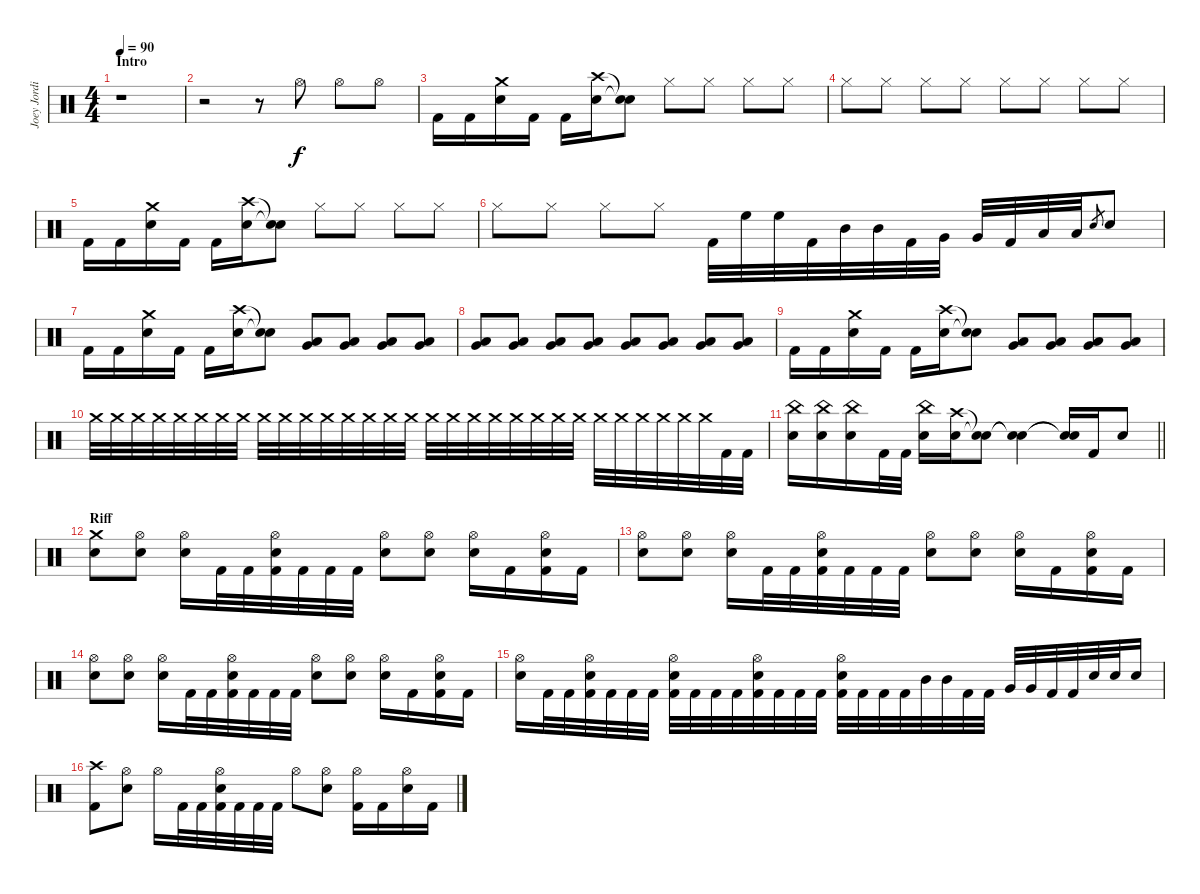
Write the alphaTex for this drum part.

\track ("Joey Jordison" "Joey Jordi") {instrument percussion}
\staff {score}
\articulation defaults
\ts (4 4)
\section ("" "Intro ")
\tempo 90
\clef neutral
\ks c
r.1{dy f} |
r.2 r.8 "Hi-Hat (open)".8 "Hi-Hat (open)".8 "Hi-Hat (open)".8 |
"Kick (hit) 2".16 "Kick (hit) 2".16 ("Crash medium (hit)" "Electric Snare (hit)").16 "Kick (hit) 2".16 "Kick (hit) 2".16 ("Crash high (hit)" "Electric Snare (hit)").16 ("Snare (hit)"{t} "Snare (hit)"{t}).8 "Hi-Hat (closed)".8 "Hi-Hat (closed)".8 "Hi-Hat (closed)".8 "Hi-Hat (closed)".8 |
"Hi-Hat (closed)".8 "Hi-Hat (closed)".8 "Hi-Hat (closed)".8 "Hi-Hat (closed)".8 "Hi-Hat (closed)".8 "Hi-Hat (closed)".8 "Hi-Hat (closed)".8 "Hi-Hat (closed)".8 |
"Kick (hit) 2".16 "Kick (hit) 2".16 ("Crash medium (hit)" "Electric Snare (hit)").16 "Kick (hit) 2".16 "Kick (hit) 2".16 ("Crash high (hit)" "Electric Snare (hit)").16 ("Snare (hit)"{t} "Snare (hit)"{t}).8 "Hi-Hat (closed)".8 "Hi-Hat (closed)".8 "Hi-Hat (closed)".8 "Hi-Hat (closed)".8 |
"Hi-Hat (closed)".8 "Hi-Hat (closed)".8 "Hi-Hat (closed)".8 "Hi-Hat (closed)".8 "Kick (hit) 2".32 "High Floor Tom (hit)".32 "High Floor Tom (hit)".32 "Kick (hit) 2".32 "Mid Tom (hit)".32 "Mid Tom (hit)".32 "Kick (hit) 2".32 "Very Low Tom (hit)".32 "Very Low Tom (hit)".32 "Kick (hit) 2".32 "Low Floor Tom (hit)".32 "Low Floor Tom (hit)".32 "Electric Snare (hit)".8{gr} "Electric Snare (hit)".8 |
"Kick (hit) 2".16 "Kick (hit) 2".16 ("Crash medium (hit)" "Electric Snare (hit)").16 "Kick (hit) 2".16 "Kick (hit) 2".16 ("Crash high (hit)" "Electric Snare (hit)").16 ("Snare (hit)"{t} "Snare (hit)"{t}).8 ("Very Low Tom (hit)" "Low Floor Tom (hit)").8 ("Very Low Tom (hit)" "Low Floor Tom (hit)").8 ("Very Low Tom (hit)" "Low Floor Tom (hit)").8 ("Very Low Tom (hit)" "Low Floor Tom (hit)").8 |
("Very Low Tom (hit)" "Low Floor Tom (hit)").8 ("Very Low Tom (hit)" "Low Floor Tom (hit)").8 ("Very Low Tom (hit)" "Low Floor Tom (hit)").8 ("Very Low Tom (hit)" "Low Floor Tom (hit)").8 ("Very Low Tom (hit)" "Low Floor Tom (hit)").8 ("Very Low Tom (hit)" "Low Floor Tom (hit)").8 ("Very Low Tom (hit)" "Low Floor Tom (hit)").8 ("Very Low Tom (hit)" "Low Floor Tom (hit)").8 |
"Kick (hit) 2".16 "Kick (hit) 2".16 ("Crash medium (hit)" "Electric Snare (hit)").16 "Kick (hit) 2".16 "Kick (hit) 2".16 ("Crash high (hit)" "Electric Snare (hit)").16 ("Snare (hit)"{t} "Snare (hit)"{t}).8 ("Very Low Tom (hit)" "Low Floor Tom (hit)").8 ("Very Low Tom (hit)" "Low Floor Tom (hit)").8 ("Very Low Tom (hit)" "Low Floor Tom (hit)").8 ("Very Low Tom (hit)" "Low Floor Tom (hit)").8 |
"Crash medium (hit)".32{volume 5} "Crash medium (hit)".32{volume 13} "Crash medium (hit)".32 "Crash medium (hit)".32 "Crash medium (hit)".32 "Crash medium (hit)".32 "Crash medium (hit)".32 "Crash medium (hit)".32 "Crash medium (hit)".32 "Crash medium (hit)".32 "Crash medium (hit)".32 "Crash medium (hit)".32 "Crash medium (hit)".32 "Crash medium (hit)".32 "Crash medium (hit)".32 "Crash medium (hit)".32 "Crash medium (hit)".32 "Crash medium (hit)".32 "Crash medium (hit)".32 "Crash medium (hit)".32 "Crash medium (hit)".32 "Crash medium (hit)".32 "Crash medium (hit)".32 "Crash medium (hit)".32 "Crash medium (hit)".32 "Crash medium (hit)".32 "Crash medium (hit)".32 "Crash medium (hit)".32 "Crash medium (hit)".32 "Crash medium (hit)".32 "Kick (hit) 2".32 "Kick (hit) 2".32 |
\barLineRight lightlight
("China (hit)" "Electric Snare (hit)").16 ("China (hit)" "Electric Snare (hit)").16 ("China (hit)" "Electric Snare (hit)").16 "Kick (hit) 2".32 "Kick (hit) 2".32 ("China (hit)" "Electric Snare (hit)").16 ("Crash high (hit)" "Electric Snare (hit)").16 ("Snare (hit)"{t} "Snare (hit)"{t}).8 ("Snare (hit)"{t} "Snare (hit)"{t}).4 ("Snare (hit)"{t} "Snare (hit)"{t}).16 "Kick (hit) 2".16 "Electric Snare (hit)".8 |
\section ("" "Riff")
("Crash medium (hit)" "Electric Snare (hit)").8 ("Hi-Hat (open)" "Electric Snare (hit)").8 ("Hi-Hat (open)" "Electric Snare (hit)").16 "Kick (hit) 2".32 "Kick (hit) 2".32 ("Hi-Hat (open)" "Electric Snare (hit)" "Kick (hit) 2").32 "Kick (hit) 2".32 "Kick (hit) 2".32 "Kick (hit) 2".32 ("Hi-Hat (open)" "Electric Snare (hit)").8 ("Hi-Hat (open)" "Electric Snare (hit)").8 ("Hi-Hat (open)" "Electric Snare (hit)").16 "Kick (hit) 2".16 ("Hi-Hat (open)" "Electric Snare (hit)" "Kick (hit) 2").16 "Kick (hit) 2".16 |
("Hi-Hat (open)" "Electric Snare (hit)").8 ("Hi-Hat (open)" "Electric Snare (hit)").8 ("Hi-Hat (open)" "Electric Snare (hit)").16 "Kick (hit) 2".32 "Kick (hit) 2".32 ("Hi-Hat (open)" "Electric Snare (hit)" "Kick (hit) 2").32 "Kick (hit) 2".32 "Kick (hit) 2".32 "Kick (hit) 2".32 ("Hi-Hat (open)" "Electric Snare (hit)").8 ("Hi-Hat (open)" "Electric Snare (hit)").8 ("Hi-Hat (open)" "Electric Snare (hit)").16 "Kick (hit) 2".16 ("Hi-Hat (open)" "Electric Snare (hit)" "Kick (hit) 2").16 "Kick (hit) 2".16 |
("Hi-Hat (open)" "Electric Snare (hit)").8 ("Hi-Hat (open)" "Electric Snare (hit)").8 ("Hi-Hat (open)" "Electric Snare (hit)").16 "Kick (hit) 2".32 "Kick (hit) 2".32 ("Hi-Hat (open)" "Electric Snare (hit)" "Kick (hit) 2").32 "Kick (hit) 2".32 "Kick (hit) 2".32 "Kick (hit) 2".32 ("Hi-Hat (open)" "Electric Snare (hit)").8 ("Hi-Hat (open)" "Electric Snare (hit)").8 ("Hi-Hat (open)" "Electric Snare (hit)").16 "Kick (hit) 2".16 ("Hi-Hat (open)" "Electric Snare (hit)" "Kick (hit) 2").16 "Kick (hit) 2".16 |
("Hi-Hat (open)" "Electric Snare (hit)").16 "Kick (hit) 2".32 "Kick (hit) 2".32 ("Hi-Hat (open)" "Electric Snare (hit)" "Kick (hit) 2").32 "Kick (hit) 2".32 "Kick (hit) 2".32 "Kick (hit) 2".32 ("Hi-Hat (open)" "Electric Snare (hit)" "Kick (hit) 2").32 "Kick (hit) 2".32 "Kick (hit) 2".32 "Kick (hit) 2".32 ("Hi-Hat (open)" "Electric Snare (hit)" "Kick (hit) 2").32 "Kick (hit) 2".32 "Kick (hit) 2".32 "Kick (hit) 2".32 ("Hi-Hat (open)" "Electric Snare (hit)" "Kick (hit) 2").32 "Kick (hit) 2".32 "Kick (hit) 2".32 "Kick (hit) 2".32 "Mid Tom (hit)".32 "Mid Tom (hit)".32 "Kick (hit) 2".32 "Kick (hit) 2".32 "Very Low Tom (hit)".32 "Very Low Tom (hit)".32 "Kick (hit) 2".32 "Kick (hit) 2".32 "Electric Snare (hit)".32 "Electric Snare (hit)".32 "Electric Snare (hit)".16 |
("Crash high (hit)" "Kick (hit) 2").8 ("Hi-Hat (open)" "Electric Snare (hit)").8 "Hi-Hat (open)".16 "Kick (hit) 2".32 "Kick (hit) 2".32 ("Hi-Hat (open)" "Electric Snare (hit)" "Kick (hit) 2").32 "Kick (hit) 2".32 "Kick (hit) 2".32 "Kick (hit) 2".32 "Hi-Hat (open)".8 ("Hi-Hat (open)" "Electric Snare (hit)").8 ("Hi-Hat (open)" "Kick (hit) 2").16 "Kick (hit) 2".16 ("Hi-Hat (open)" "Electric Snare (hit)").16 "Kick (hit) 2".16
